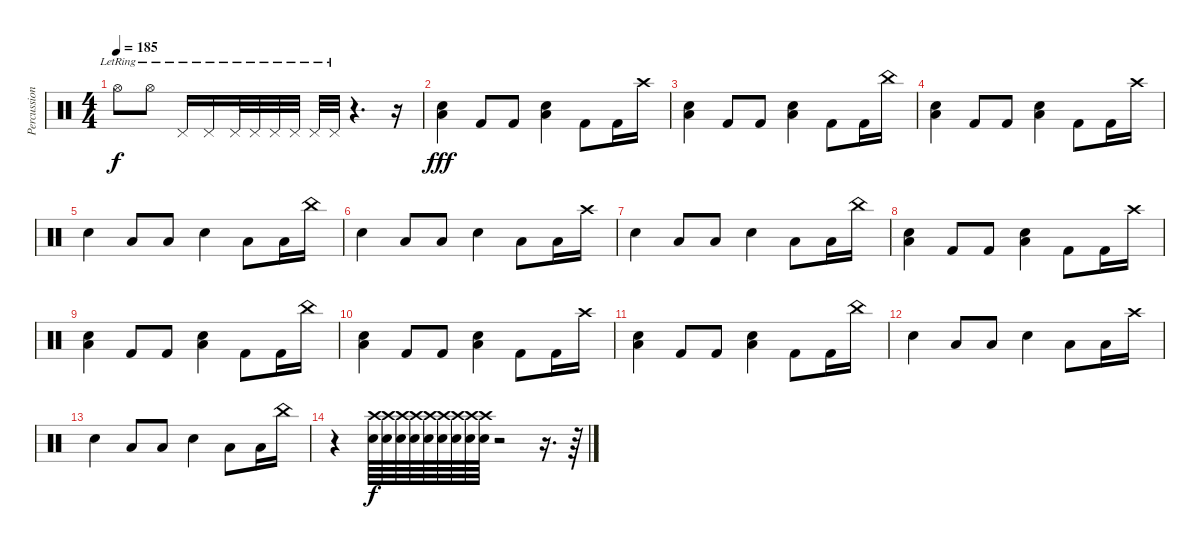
\track ("Percussions" "Percussion") {instrument percussion}
\staff {score}
\articulation defaults
\ts (4 4)
\tempo 185
\clef neutral
\ks c "Hi-Hat (open)"{lr}.8{dy f} "Hi-Hat (open)"{lr}.8 "Pedal Hi-Hat (hit)"{lr}.16 "Pedal Hi-Hat (hit)"{lr}.16 "Pedal Hi-Hat (hit)"{lr}.32 "Pedal Hi-Hat (hit)"{lr}.32 "Pedal Hi-Hat (hit)"{lr}.32 "Pedal Hi-Hat (hit)"{lr}.32 "Pedal Hi-Hat (hit)"{lr}.32 "Pedal Hi-Hat (hit)"{lr}.32
r.4{d} r.16 |
("Electric Snare (hit)" "Low Tom (hit)").4{dy fff} "Kick (hit) 2".8 "Kick (hit) 2".8 ("Electric Snare (hit)" "Low Tom (hit)").4 "Kick (hit) 2".8 "Kick (hit) 2".16 "Crash high (hit)".16 |
("Electric Snare (hit)" "Low Tom (hit)").4 "Kick (hit) 2".8 "Kick (hit) 2".8 ("Electric Snare (hit)" "Low Tom (hit)").4 "Kick (hit) 2".8 "Kick (hit) 2".16 "China (hit)".16 |
("Electric Snare (hit)" "Low Tom (hit)").4 "Kick (hit) 2".8 "Kick (hit) 2".8 ("Electric Snare (hit)" "Low Tom (hit)").4 "Kick (hit) 2".8 "Kick (hit) 2".16 "Crash high (hit)".16 |
"Electric Snare (hit)".4 "Low Tom (hit)".8 "Low Tom (hit)".8 "Electric Snare (hit)".4 "Low Tom (hit)".8 "Low Tom (hit)".16 "China (hit)".16 |
"Electric Snare (hit)".4 "Low Tom (hit)".8 "Low Tom (hit)".8 "Electric Snare (hit)".4 "Low Tom (hit)".8 "Low Tom (hit)".16 "Crash high (hit)".16 |
"Electric Snare (hit)".4 "Low Tom (hit)".8 "Low Tom (hit)".8 "Electric Snare (hit)".4 "Low Tom (hit)".8 "Low Tom (hit)".16 "China (hit)".16 |
("Electric Snare (hit)" "Low Tom (hit)").4 "Kick (hit) 2".8 "Kick (hit) 2".8 ("Electric Snare (hit)" "Low Tom (hit)").4 "Kick (hit) 2".8 "Kick (hit) 2".16 "Crash high (hit)".16 |
("Electric Snare (hit)" "Low Tom (hit)").4 "Kick (hit) 2".8 "Kick (hit) 2".8 ("Electric Snare (hit)" "Low Tom (hit)").4 "Kick (hit) 2".8 "Kick (hit) 2".16 "China (hit)".16 |
("Electric Snare (hit)" "Low Tom (hit)").4 "Kick (hit) 2".8 "Kick (hit) 2".8 ("Electric Snare (hit)" "Low Tom (hit)").4 "Kick (hit) 2".8 "Kick (hit) 2".16 "Crash high (hit)".16 |
("Electric Snare (hit)" "Low Tom (hit)").4 "Kick (hit) 2".8 "Kick (hit) 2".8 ("Electric Snare (hit)" "Low Tom (hit)").4 "Kick (hit) 2".8 "Kick (hit) 2".16 "China (hit)".16 |
"Electric Snare (hit)".4 "Low Tom (hit)".8 "Low Tom (hit)".8 "Electric Snare (hit)".4 "Low Tom (hit)".8 "Low Tom (hit)".16 "Crash high (hit)".16 |
"Electric Snare (hit)".4 "Low Tom (hit)".8 "Low Tom (hit)".8 "Electric Snare (hit)".4 "Low Tom (hit)".8 "Low Tom (hit)".16 "China (hit)".16 |
r.4 ("Crash high (hit)" "Hand Clap (hit)").64{dy f} ("Crash high (hit)" "Hand Clap (hit)").64 ("Crash high (hit)" "Hand Clap (hit)").64 ("Crash high (hit)" "Hand Clap (hit)").64 ("Crash high (hit)" "Hand Clap (hit)").64 ("Crash high (hit)" "Hand Clap (hit)").64 ("Crash high (hit)" "Hand Clap (hit)").64 ("Crash high (hit)" "Hand Clap (hit)").64 ("Crash high (hit)" "Hand Clap (hit)").64 r.2 r.16{d} r.64
